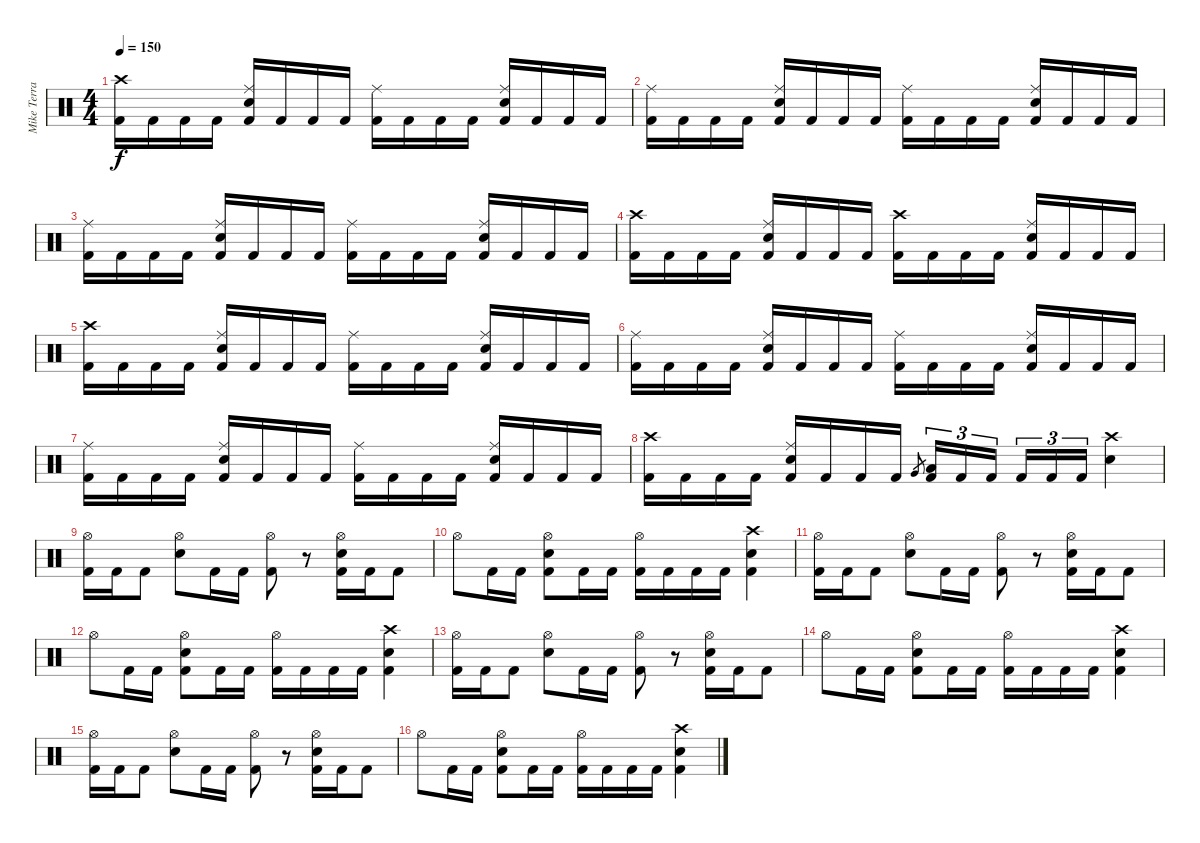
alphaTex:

\track ("Mike Terrana" "Mike Terra") {instrument percussion}
\staff {score}
\articulation defaults
\ts (4 4)
\tempo 150
\clef neutral
\ks c
("Crash high (hit)" "Kick (hit) 2").16{dy f} "Kick (hit) 2".16 "Kick (hit) 2".16 "Kick (hit) 2".16 ("Ride (middle)" "Electric Snare (hit)" "Kick (hit) 2").16 "Kick (hit) 2".16 "Kick (hit) 2".16 "Kick (hit) 2".16 ("Ride (middle)" "Kick (hit) 2").16 "Kick (hit) 2".16 "Kick (hit) 2".16 "Kick (hit) 2".16 ("Ride (middle)" "Electric Snare (hit)" "Kick (hit) 2").16 "Kick (hit) 2".16 "Kick (hit) 2".16 "Kick (hit) 2".16 |
("Ride (middle)" "Kick (hit) 2").16 "Kick (hit) 2".16 "Kick (hit) 2".16 "Kick (hit) 2".16 ("Ride (middle)" "Electric Snare (hit)" "Kick (hit) 2").16 "Kick (hit) 2".16 "Kick (hit) 2".16 "Kick (hit) 2".16 ("Ride (middle)" "Kick (hit) 2").16 "Kick (hit) 2".16 "Kick (hit) 2".16 "Kick (hit) 2".16 ("Ride (middle)" "Electric Snare (hit)" "Kick (hit) 2").16 "Kick (hit) 2".16 "Kick (hit) 2".16 "Kick (hit) 2".16 |
("Ride (middle)" "Kick (hit) 2").16 "Kick (hit) 2".16 "Kick (hit) 2".16 "Kick (hit) 2".16 ("Ride (middle)" "Electric Snare (hit)" "Kick (hit) 2").16 "Kick (hit) 2".16 "Kick (hit) 2".16 "Kick (hit) 2".16 ("Ride (middle)" "Kick (hit) 2").16 "Kick (hit) 2".16 "Kick (hit) 2".16 "Kick (hit) 2".16 ("Ride (middle)" "Electric Snare (hit)" "Kick (hit) 2").16 "Kick (hit) 2".16 "Kick (hit) 2".16 "Kick (hit) 2".16 |
("Crash high (hit)" "Kick (hit) 2").16 "Kick (hit) 2".16 "Kick (hit) 2".16 "Kick (hit) 2".16 ("Ride (middle)" "Electric Snare (hit)" "Kick (hit) 2").16 "Kick (hit) 2".16 "Kick (hit) 2".16 "Kick (hit) 2".16 ("Crash high (hit)" "Kick (hit) 2").16 "Kick (hit) 2".16 "Kick (hit) 2".16 "Kick (hit) 2".16 ("Ride (middle)" "Electric Snare (hit)" "Kick (hit) 2").16 "Kick (hit) 2".16 "Kick (hit) 2".16 "Kick (hit) 2".16 |
("Crash high (hit)" "Kick (hit) 2").16 "Kick (hit) 2".16 "Kick (hit) 2".16 "Kick (hit) 2".16 ("Ride (middle)" "Electric Snare (hit)" "Kick (hit) 2").16 "Kick (hit) 2".16 "Kick (hit) 2".16 "Kick (hit) 2".16 ("Ride (middle)" "Kick (hit) 2").16 "Kick (hit) 2".16 "Kick (hit) 2".16 "Kick (hit) 2".16 ("Ride (middle)" "Electric Snare (hit)" "Kick (hit) 2").16 "Kick (hit) 2".16 "Kick (hit) 2".16 "Kick (hit) 2".16 |
("Ride (middle)" "Kick (hit) 2").16 "Kick (hit) 2".16 "Kick (hit) 2".16 "Kick (hit) 2".16 ("Ride (middle)" "Electric Snare (hit)" "Kick (hit) 2").16 "Kick (hit) 2".16 "Kick (hit) 2".16 "Kick (hit) 2".16 ("Ride (middle)" "Kick (hit) 2").16 "Kick (hit) 2".16 "Kick (hit) 2".16 "Kick (hit) 2".16 ("Ride (middle)" "Electric Snare (hit)" "Kick (hit) 2").16 "Kick (hit) 2".16 "Kick (hit) 2".16 "Kick (hit) 2".16 |
("Ride (middle)" "Kick (hit) 2").16 "Kick (hit) 2".16 "Kick (hit) 2".16 "Kick (hit) 2".16 ("Ride (middle)" "Electric Snare (hit)" "Kick (hit) 2").16 "Kick (hit) 2".16 "Kick (hit) 2".16 "Kick (hit) 2".16 ("Ride (middle)" "Kick (hit) 2").16 "Kick (hit) 2".16 "Kick (hit) 2".16 "Kick (hit) 2".16 ("Ride (middle)" "Electric Snare (hit)" "Kick (hit) 2").16 "Kick (hit) 2".16 "Kick (hit) 2".16 "Kick (hit) 2".16 |
("Crash high (hit)" "Kick (hit) 2").16 "Kick (hit) 2".16 "Kick (hit) 2".16 "Kick (hit) 2".16 ("Ride (middle)" "Electric Snare (hit)" "Kick (hit) 2").16 "Kick (hit) 2".16 "Kick (hit) 2".16 "Kick (hit) 2".16 "Very Low Tom (hit)".8{gr} ("Low Floor Tom (hit)" "Kick (hit) 2").16{tu (3 2)} "Kick (hit) 2".16{tu (3 2)} "Kick (hit) 2".16{tu (3 2)} "Kick (hit) 2".16{tu (3 2)} "Kick (hit) 2".16{tu (3 2)} "Kick (hit) 2".16{tu (3 2)} ("Crash high (hit)" "Electric Snare (hit)").4 |
("Hi-Hat (open)" "Kick (hit) 2").16 "Kick (hit) 2".16 "Kick (hit) 2".8 ("Hi-Hat (open)" "Electric Snare (hit)").8 "Kick (hit) 2".16 "Kick (hit) 2".16 ("Hi-Hat (open)" "Kick (hit) 2").8 r.8 ("Hi-Hat (open)" "Electric Snare (hit)" "Kick (hit) 2").16 "Kick (hit) 2".16 "Kick (hit) 2".8 |
"Hi-Hat (open)".8 "Kick (hit) 2".16 "Kick (hit) 2".16 ("Hi-Hat (open)" "Electric Snare (hit)" "Kick (hit) 2").8 "Kick (hit) 2".16 "Kick (hit) 2".16 ("Hi-Hat (open)" "Kick (hit) 2").16 "Kick (hit) 2".16 "Kick (hit) 2".16 "Kick (hit) 2".16 ("Crash high (hit)" "Electric Snare (hit)" "Kick (hit) 2").4 |
("Hi-Hat (open)" "Kick (hit) 2").16 "Kick (hit) 2".16 "Kick (hit) 2".8 ("Hi-Hat (open)" "Electric Snare (hit)").8 "Kick (hit) 2".16 "Kick (hit) 2".16 ("Hi-Hat (open)" "Kick (hit) 2").8 r.8 ("Hi-Hat (open)" "Electric Snare (hit)" "Kick (hit) 2").16 "Kick (hit) 2".16 "Kick (hit) 2".8 |
"Hi-Hat (open)".8 "Kick (hit) 2".16 "Kick (hit) 2".16 ("Hi-Hat (open)" "Electric Snare (hit)" "Kick (hit) 2").8 "Kick (hit) 2".16 "Kick (hit) 2".16 ("Hi-Hat (open)" "Kick (hit) 2").16 "Kick (hit) 2".16 "Kick (hit) 2".16 "Kick (hit) 2".16 ("Crash high (hit)" "Electric Snare (hit)" "Kick (hit) 2").4 |
("Hi-Hat (open)" "Kick (hit) 2").16 "Kick (hit) 2".16 "Kick (hit) 2".8 ("Hi-Hat (open)" "Electric Snare (hit)").8 "Kick (hit) 2".16 "Kick (hit) 2".16 ("Hi-Hat (open)" "Kick (hit) 2").8 r.8 ("Hi-Hat (open)" "Electric Snare (hit)" "Kick (hit) 2").16 "Kick (hit) 2".16 "Kick (hit) 2".8 |
"Hi-Hat (open)".8 "Kick (hit) 2".16 "Kick (hit) 2".16 ("Hi-Hat (open)" "Electric Snare (hit)" "Kick (hit) 2").8 "Kick (hit) 2".16 "Kick (hit) 2".16 ("Hi-Hat (open)" "Kick (hit) 2").16 "Kick (hit) 2".16 "Kick (hit) 2".16 "Kick (hit) 2".16 ("Crash high (hit)" "Electric Snare (hit)" "Kick (hit) 2").4 |
("Hi-Hat (open)" "Kick (hit) 2").16 "Kick (hit) 2".16 "Kick (hit) 2".8 ("Hi-Hat (open)" "Electric Snare (hit)").8 "Kick (hit) 2".16 "Kick (hit) 2".16 ("Hi-Hat (open)" "Kick (hit) 2").8 r.8 ("Hi-Hat (open)" "Electric Snare (hit)" "Kick (hit) 2").16 "Kick (hit) 2".16 "Kick (hit) 2".8 |
"Hi-Hat (open)".8 "Kick (hit) 2".16 "Kick (hit) 2".16 ("Hi-Hat (open)" "Electric Snare (hit)" "Kick (hit) 2").8 "Kick (hit) 2".16 "Kick (hit) 2".16 ("Hi-Hat (open)" "Kick (hit) 2").16 "Kick (hit) 2".16 "Kick (hit) 2".16 "Kick (hit) 2".16 ("Crash high (hit)" "Electric Snare (hit)" "Kick (hit) 2").4
